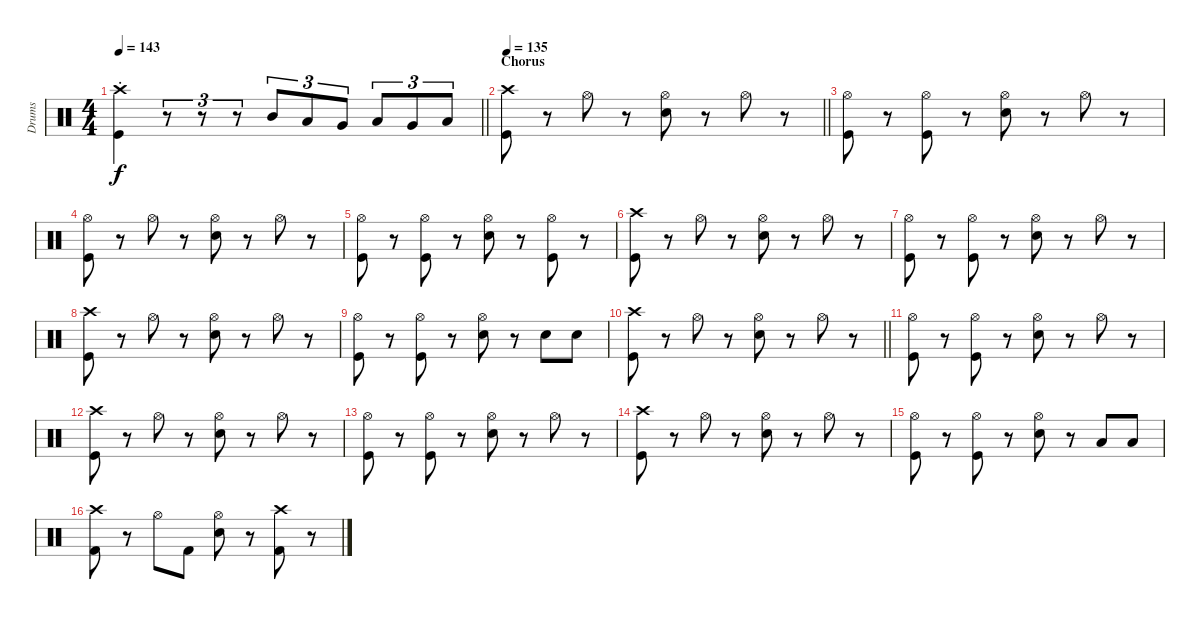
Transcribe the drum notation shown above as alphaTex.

\track ("Drums" "Drums") {instrument percussion}
\staff {score}
\articulation defaults
\ts (4 4)
\tempo 143
\clef neutral
\barLineRight lightlight
\ks c
("Crash high (hit)"{st} "Kick (hit)"{st}).4{dy f} r.8{tu (3 2)} r.8{tu (3 2)} r.8{tu (3 2)} "Mid Tom (hit)".8{tu (3 2)} "Low Tom (hit)".8{tu (3 2)} "Very Low Tom (hit)".8{tu (3 2)} "Low Tom (hit)".8{tu (3 2)} "Very Low Tom (hit)".8{tu (3 2)} "Low Floor Tom (hit)".8{tu (3 2)} |
\section ("" "Chorus")
\tempo 135
\barLineRight lightlight
("Crash high (hit)" "Kick (hit)").8 r.8 "Hi-Hat (open)".8 r.8 ("Hi-Hat (open)" "Snare (hit) 2").8 r.8 "Hi-Hat (open)".8 r.8 |
("Hi-Hat (open)" "Kick (hit)").8 r.8 ("Hi-Hat (open)" "Kick (hit)").8 r.8 ("Hi-Hat (open)" "Snare (hit) 2").8 r.8 "Hi-Hat (open)".8 r.8 |
("Hi-Hat (open)" "Kick (hit)").8 r.8 "Hi-Hat (open)".8 r.8 ("Hi-Hat (open)" "Snare (hit) 2").8 r.8 "Hi-Hat (open)".8 r.8 |
("Hi-Hat (open)" "Kick (hit)").8 r.8 ("Hi-Hat (open)" "Kick (hit)").8 r.8 ("Hi-Hat (open)" "Snare (hit) 2").8 r.8 ("Hi-Hat (open)" "Kick (hit)").8 r.8 |
("Crash high (hit)" "Kick (hit)").8 r.8 "Hi-Hat (open)".8 r.8 ("Hi-Hat (open)" "Snare (hit) 2").8 r.8 "Hi-Hat (open)".8 r.8 |
("Hi-Hat (open)" "Kick (hit)").8 r.8 ("Hi-Hat (open)" "Kick (hit)").8 r.8 ("Hi-Hat (open)" "Snare (hit) 2").8 r.8 "Hi-Hat (open)".8 r.8 |
("Crash high (hit)" "Kick (hit)").8 r.8 "Hi-Hat (open)".8 r.8 ("Hi-Hat (open)" "Snare (hit) 2").8 r.8 "Hi-Hat (open)".8 r.8 |
("Hi-Hat (open)" "Kick (hit)").8 r.8 ("Hi-Hat (open)" "Kick (hit)").8 r.8 ("Hi-Hat (open)" "Snare (hit) 2").8 r.8 "Snare (hit) 2".8 "Snare (hit) 2".8 |
\barLineRight lightlight
("Crash high (hit)" "Kick (hit)").8 r.8 "Hi-Hat (open)".8 r.8 ("Hi-Hat (open)" "Snare (hit) 2").8 r.8 "Hi-Hat (open)".8 r.8 |
("Hi-Hat (open)" "Kick (hit)").8 r.8 ("Hi-Hat (open)" "Kick (hit)").8 r.8 ("Hi-Hat (open)" "Snare (hit) 2").8 r.8 "Hi-Hat (open)".8 r.8 |
("Crash high (hit)" "Kick (hit)").8 r.8 "Hi-Hat (open)".8 r.8 ("Hi-Hat (open)" "Snare (hit) 2").8 r.8 "Hi-Hat (open)".8 r.8 |
("Hi-Hat (open)" "Kick (hit)").8 r.8 ("Hi-Hat (open)" "Kick (hit)").8 r.8 ("Hi-Hat (open)" "Snare (hit) 2").8 r.8 "Hi-Hat (open)".8 r.8 |
("Crash high (hit)" "Kick (hit)").8 r.8 "Hi-Hat (open)".8 r.8 ("Hi-Hat (open)" "Snare (hit) 2").8 r.8 "Hi-Hat (open)".8 r.8 |
("Hi-Hat (open)" "Kick (hit)").8 r.8 ("Hi-Hat (open)" "Kick (hit)").8 r.8 ("Hi-Hat (open)" "Snare (hit) 2").8 r.8 "Low Tom (hit)".8 "Low Tom (hit)".8 |
("Crash high (hit)" "Kick (hit) 2").8 r.8 "Hi-Hat (open)".8 "Kick (hit) 2".8 ("Hi-Hat (open)" "Snare (hit) 2").8 r.8 ("Crash high (hit)" "Kick (hit) 2").8 r.8
